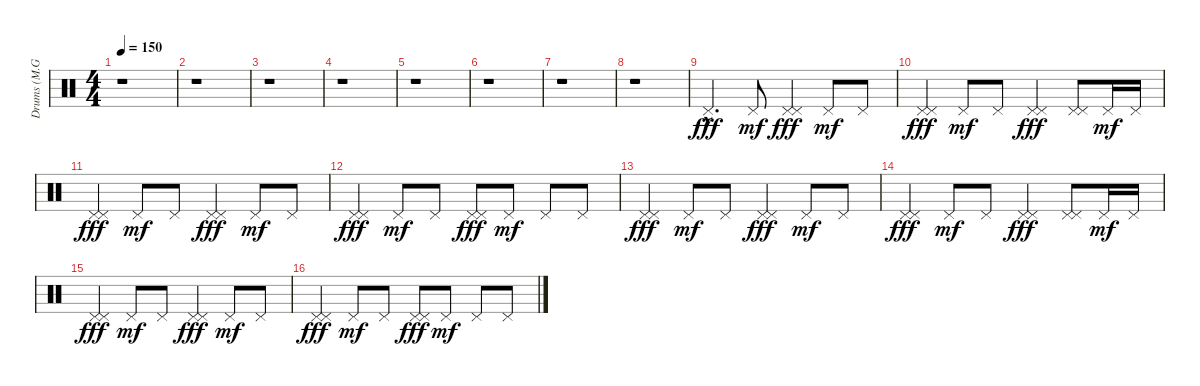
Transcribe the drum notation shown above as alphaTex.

\track ("Drums (M.Großkopf)" "Drums (M.G") {instrument percussion}
\staff {score}
\articulation defaults
\ts (4 4)
\tempo 150
\clef neutral
\ks c
r.1{dy f} |
r.1 |
r.1 |
r.1 |
r.1 |
r.1 |
r.1 |
r.1 |
"Pedal Hi-Hat (hit)"{hac}.4{d dy fff} "Pedal Hi-Hat (hit)".8{dy mf} ("Pedal Hi-Hat (hit)" "Pedal Hi-Hat (hit)").4{dy fff} "Pedal Hi-Hat (hit)".8{dy mf} "Pedal Hi-Hat (hit)".8 |
("Pedal Hi-Hat (hit)" "Pedal Hi-Hat (hit)").4{dy fff} "Pedal Hi-Hat (hit)".8{dy mf} "Pedal Hi-Hat (hit)".8 ("Pedal Hi-Hat (hit)" "Pedal Hi-Hat (hit)").4{dy fff} ("Pedal Hi-Hat (hit)" "Pedal Hi-Hat (hit)").8 "Pedal Hi-Hat (hit)".16{dy mf} "Pedal Hi-Hat (hit)".16 |
("Pedal Hi-Hat (hit)" "Pedal Hi-Hat (hit)").4{dy fff} "Pedal Hi-Hat (hit)".8{dy mf} "Pedal Hi-Hat (hit)".8 ("Pedal Hi-Hat (hit)" "Pedal Hi-Hat (hit)").4{dy fff} "Pedal Hi-Hat (hit)".8{dy mf} "Pedal Hi-Hat (hit)".8 |
("Pedal Hi-Hat (hit)" "Pedal Hi-Hat (hit)").4{dy fff} "Pedal Hi-Hat (hit)".8{dy mf} "Pedal Hi-Hat (hit)".8 ("Pedal Hi-Hat (hit)" "Pedal Hi-Hat (hit)").8{dy fff} "Pedal Hi-Hat (hit)".8{dy mf} "Pedal Hi-Hat (hit)".8 "Pedal Hi-Hat (hit)".8 |
("Pedal Hi-Hat (hit)" "Pedal Hi-Hat (hit)").4{dy fff} "Pedal Hi-Hat (hit)".8{dy mf} "Pedal Hi-Hat (hit)".8 ("Pedal Hi-Hat (hit)" "Pedal Hi-Hat (hit)").4{dy fff} "Pedal Hi-Hat (hit)".8{dy mf} "Pedal Hi-Hat (hit)".8 |
("Pedal Hi-Hat (hit)" "Pedal Hi-Hat (hit)").4{dy fff} "Pedal Hi-Hat (hit)".8{dy mf} "Pedal Hi-Hat (hit)".8 ("Pedal Hi-Hat (hit)" "Pedal Hi-Hat (hit)").4{dy fff} ("Pedal Hi-Hat (hit)" "Pedal Hi-Hat (hit)").8 "Pedal Hi-Hat (hit)".16{dy mf} "Pedal Hi-Hat (hit)".16 |
("Pedal Hi-Hat (hit)" "Pedal Hi-Hat (hit)").4{dy fff} "Pedal Hi-Hat (hit)".8{dy mf} "Pedal Hi-Hat (hit)".8 ("Pedal Hi-Hat (hit)" "Pedal Hi-Hat (hit)").4{dy fff} "Pedal Hi-Hat (hit)".8{dy mf} "Pedal Hi-Hat (hit)".8 |
("Pedal Hi-Hat (hit)" "Pedal Hi-Hat (hit)").4{dy fff} "Pedal Hi-Hat (hit)".8{dy mf} "Pedal Hi-Hat (hit)".8 ("Pedal Hi-Hat (hit)" "Pedal Hi-Hat (hit)").8{dy fff} "Pedal Hi-Hat (hit)".8{dy mf} "Pedal Hi-Hat (hit)".8 "Pedal Hi-Hat (hit)".8
